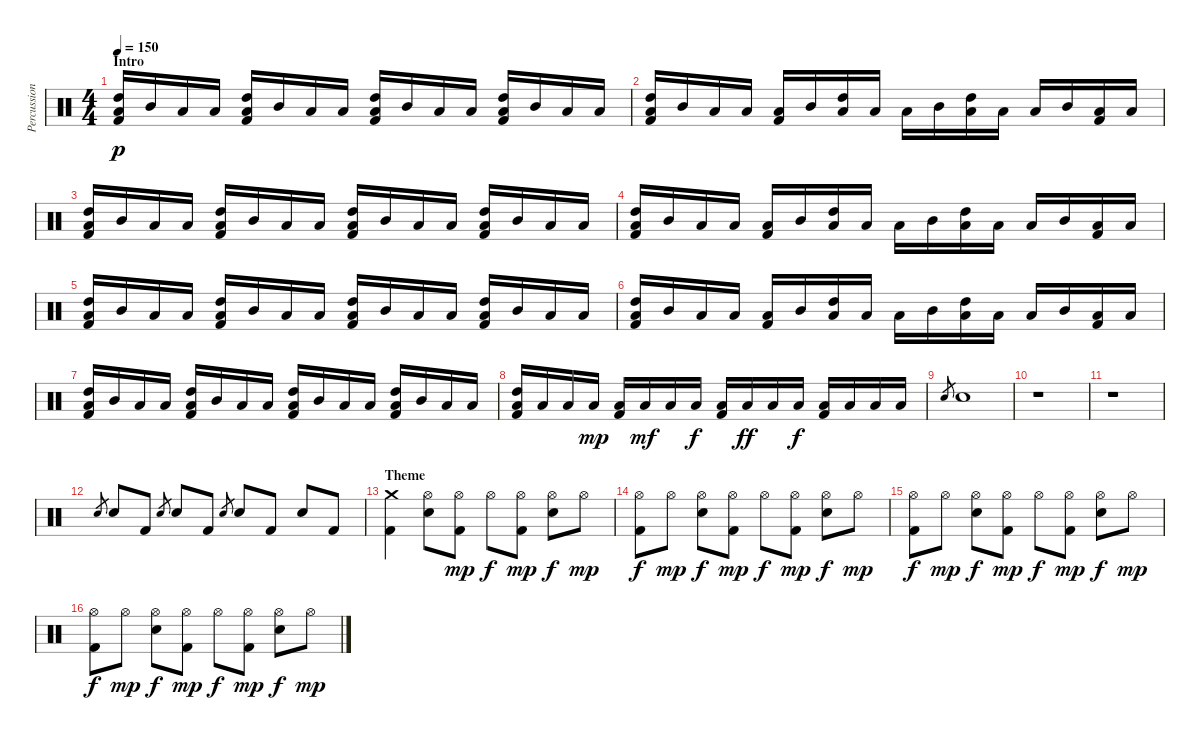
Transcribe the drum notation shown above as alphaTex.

\track ("Percussions" "Percussion") {instrument percussion}
\staff {score}
\articulation defaults
\ts (4 4)
\section ("" "Intro")
\tempo 150
\clef neutral
\ks c
("High Tom (hit)" "Low Floor Tom (hit)" "Kick (hit) 2").16{dy p} "Mid Tom (hit)".16 "Low Tom (hit)".16 "Low Tom (hit)".16 ("High Tom (hit)" "Low Floor Tom (hit)" "Kick (hit) 2").16 "Mid Tom (hit)".16 "Low Tom (hit)".16 "Low Tom (hit)".16 ("High Tom (hit)" "Low Floor Tom (hit)" "Kick (hit) 2").16 "Mid Tom (hit)".16 "Low Tom (hit)".16 "Low Tom (hit)".16 ("High Tom (hit)" "Low Floor Tom (hit)" "Kick (hit) 2").16 "Mid Tom (hit)".16 "Low Tom (hit)".16 "Low Tom (hit)".16 |
("High Tom (hit)" "Low Floor Tom (hit)" "Kick (hit) 2").16 "Mid Tom (hit)".16 "Low Tom (hit)".16 "Low Tom (hit)".16 ("Low Tom (hit)" "Kick (hit) 2").16 "Mid Tom (hit)".16 ("High Tom (hit)" "Low Tom (hit)").16 "Low Tom (hit)".16 "Low Floor Tom (hit)".16 "Mid Tom (hit)".16 ("High Tom (hit)" "Low Tom (hit)").16 "Low Tom (hit)".16 "Low Floor Tom (hit)".16 "Mid Tom (hit)".16 ("Low Tom (hit)" "Kick (hit) 2").16 "Low Tom (hit)".16 |
("High Tom (hit)" "Low Floor Tom (hit)" "Kick (hit) 2").16 "Mid Tom (hit)".16 "Low Tom (hit)".16 "Low Tom (hit)".16 ("High Tom (hit)" "Low Floor Tom (hit)" "Kick (hit) 2").16 "Mid Tom (hit)".16 "Low Tom (hit)".16 "Low Tom (hit)".16 ("High Tom (hit)" "Low Floor Tom (hit)" "Kick (hit) 2").16 "Mid Tom (hit)".16 "Low Tom (hit)".16 "Low Tom (hit)".16 ("High Tom (hit)" "Low Floor Tom (hit)" "Kick (hit) 2").16 "Mid Tom (hit)".16 "Low Tom (hit)".16 "Low Tom (hit)".16 |
("High Tom (hit)" "Low Floor Tom (hit)" "Kick (hit) 2").16 "Mid Tom (hit)".16 "Low Tom (hit)".16 "Low Tom (hit)".16 ("Low Tom (hit)" "Kick (hit) 2").16 "Mid Tom (hit)".16 ("High Tom (hit)" "Low Tom (hit)").16 "Low Tom (hit)".16 "Low Floor Tom (hit)".16 "Mid Tom (hit)".16 ("High Tom (hit)" "Low Tom (hit)").16 "Low Tom (hit)".16 "Low Floor Tom (hit)".16 "Mid Tom (hit)".16 ("Low Tom (hit)" "Kick (hit) 2").16 "Low Tom (hit)".16 |
("High Tom (hit)" "Low Floor Tom (hit)" "Kick (hit) 2").16 "Mid Tom (hit)".16 "Low Tom (hit)".16 "Low Tom (hit)".16 ("High Tom (hit)" "Low Floor Tom (hit)" "Kick (hit) 2").16 "Mid Tom (hit)".16 "Low Tom (hit)".16 "Low Tom (hit)".16 ("High Tom (hit)" "Low Floor Tom (hit)" "Kick (hit) 2").16 "Mid Tom (hit)".16 "Low Tom (hit)".16 "Low Tom (hit)".16 ("High Tom (hit)" "Low Floor Tom (hit)" "Kick (hit) 2").16 "Mid Tom (hit)".16 "Low Tom (hit)".16 "Low Tom (hit)".16 |
("High Tom (hit)" "Low Floor Tom (hit)" "Kick (hit) 2").16 "Mid Tom (hit)".16 "Low Tom (hit)".16 "Low Tom (hit)".16 ("Low Tom (hit)" "Kick (hit) 2").16 "Mid Tom (hit)".16 ("High Tom (hit)" "Low Tom (hit)").16 "Low Tom (hit)".16 "Low Floor Tom (hit)".16 "Mid Tom (hit)".16 ("High Tom (hit)" "Low Tom (hit)").16 "Low Tom (hit)".16 "Low Floor Tom (hit)".16 "Mid Tom (hit)".16 ("Low Tom (hit)" "Kick (hit) 2").16 "Low Tom (hit)".16 |
("High Tom (hit)" "Low Floor Tom (hit)" "Kick (hit) 2").16 "Mid Tom (hit)".16 "Low Tom (hit)".16 "Low Tom (hit)".16 ("High Tom (hit)" "Low Floor Tom (hit)" "Kick (hit) 2").16 "Mid Tom (hit)".16 "Low Tom (hit)".16 "Low Tom (hit)".16 ("High Tom (hit)" "Low Floor Tom (hit)" "Kick (hit) 2").16 "Mid Tom (hit)".16 "Low Tom (hit)".16 "Low Tom (hit)".16 ("High Tom (hit)" "Low Floor Tom (hit)" "Kick (hit) 2").16 "Mid Tom (hit)".16 "Low Tom (hit)".16 "Low Tom (hit)".16 |
("High Tom (hit)" "Low Floor Tom (hit)" "Kick (hit) 2").16 "Low Tom (hit)".16 "Low Tom (hit)".16 "Low Tom (hit)".16{dy mp} ("Low Tom (hit)" "Kick (hit) 2").16 "Low Tom (hit)".16{dy mf} "Low Tom (hit)".16 "Low Tom (hit)".16{dy f} ("Low Tom (hit)" "Kick (hit) 2").16 "Low Tom (hit)".16{dy ff} "Low Tom (hit)".16 "Low Tom (hit)".16{dy f} ("Low Tom (hit)" "Kick (hit) 2").16 "Low Tom (hit)".16 "Low Tom (hit)".16 "Low Tom (hit)".16 |
"Electric Snare (hit)".8{gr} "Electric Snare (hit)".1 |
r.1 |
r.1 |
\section ("" "")
"Electric Snare (hit)".8{gr} "Electric Snare (hit)".8 "Kick (hit) 2".8 "Electric Snare (hit)".8{gr} "Electric Snare (hit)".8 "Kick (hit) 2".8 "Electric Snare (hit)".8{gr} "Electric Snare (hit)".8 "Kick (hit) 2".8 "Electric Snare (hit)".8 "Kick (hit) 2".8 |
\section ("" "Theme")
("Crash medium (hit)" "Kick (hit) 2").4 ("Hi-Hat (open)" "Electric Snare (hit)").8 ("Hi-Hat (open)" "Kick (hit) 2").8{dy mp} "Hi-Hat (open)".8{dy f} ("Hi-Hat (open)" "Kick (hit) 2").8{dy mp} ("Hi-Hat (open)" "Electric Snare (hit)").8{dy f} "Hi-Hat (open)".8{dy mp} |
("Hi-Hat (open)" "Kick (hit) 2").8{dy f} "Hi-Hat (open)".8{dy mp} ("Hi-Hat (open)" "Electric Snare (hit)").8{dy f} ("Hi-Hat (open)" "Kick (hit) 2").8{dy mp} "Hi-Hat (open)".8{dy f} ("Hi-Hat (open)" "Kick (hit) 2").8{dy mp} ("Hi-Hat (open)" "Electric Snare (hit)").8{dy f} "Hi-Hat (open)".8{dy mp} |
("Hi-Hat (open)" "Kick (hit) 2").8{dy f} "Hi-Hat (open)".8{dy mp} ("Hi-Hat (open)" "Electric Snare (hit)").8{dy f} ("Hi-Hat (open)" "Kick (hit) 2").8{dy mp} "Hi-Hat (open)".8{dy f} ("Hi-Hat (open)" "Kick (hit) 2").8{dy mp} ("Hi-Hat (open)" "Electric Snare (hit)").8{dy f} "Hi-Hat (open)".8{dy mp} |
("Hi-Hat (open)" "Kick (hit) 2").8{dy f} "Hi-Hat (open)".8{dy mp} ("Hi-Hat (open)" "Electric Snare (hit)").8{dy f} ("Hi-Hat (open)" "Kick (hit) 2").8{dy mp} "Hi-Hat (open)".8{dy f} ("Hi-Hat (open)" "Kick (hit) 2").8{dy mp} ("Hi-Hat (open)" "Electric Snare (hit)").8{dy f} "Hi-Hat (open)".8{dy mp}
